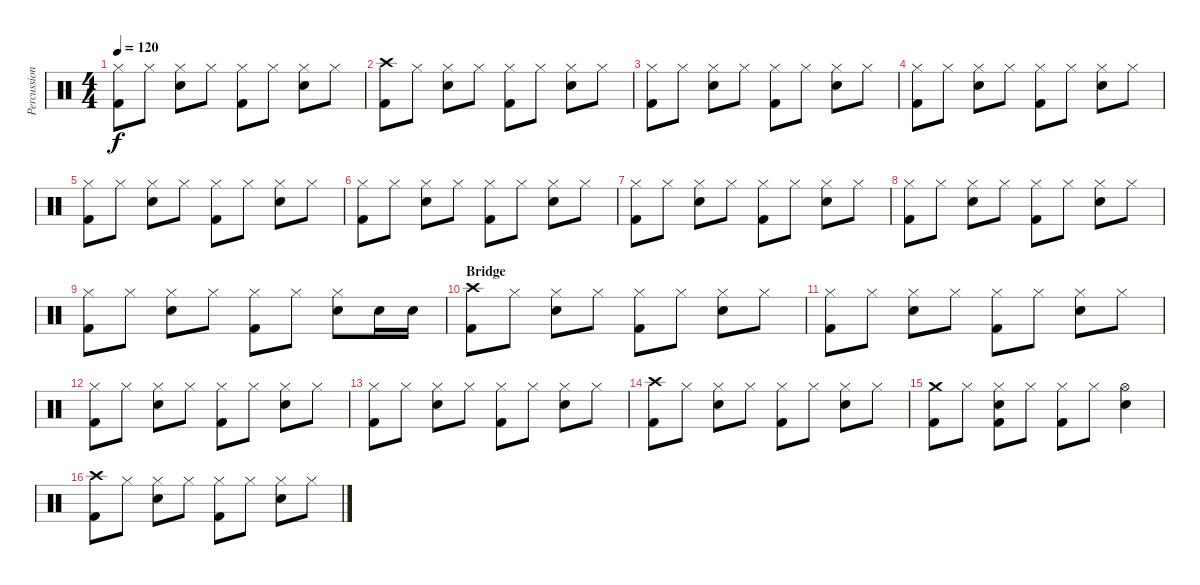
\track ("Percussion" "Percussion") {instrument percussion}
\staff {score}
\articulation defaults
\ts (4 4)
\tempo 120
\clef neutral
\ks c
("Hi-Hat (closed)" "Kick (hit) 2").8{dy f} "Hi-Hat (closed)".8 ("Hi-Hat (closed)" "Electric Snare (hit)").8 "Hi-Hat (closed)".8 ("Hi-Hat (closed)" "Kick (hit) 2").8 "Hi-Hat (closed)".8 ("Hi-Hat (closed)" "Electric Snare (hit)").8 "Hi-Hat (closed)".8 |
("Crash high (hit)" "Kick (hit) 2").8 "Hi-Hat (closed)".8 ("Hi-Hat (closed)" "Electric Snare (hit)").8 "Hi-Hat (closed)".8 ("Hi-Hat (closed)" "Kick (hit) 2").8 "Hi-Hat (closed)".8 ("Hi-Hat (closed)" "Electric Snare (hit)").8 "Hi-Hat (closed)".8 |
("Hi-Hat (closed)" "Kick (hit) 2").8 "Hi-Hat (closed)".8 ("Hi-Hat (closed)" "Electric Snare (hit)").8 "Hi-Hat (closed)".8 ("Hi-Hat (closed)" "Kick (hit) 2").8 "Hi-Hat (closed)".8 ("Hi-Hat (closed)" "Electric Snare (hit)").8 "Hi-Hat (closed)".8 |
("Hi-Hat (closed)" "Kick (hit) 2").8 "Hi-Hat (closed)".8 ("Hi-Hat (closed)" "Electric Snare (hit)").8 "Hi-Hat (closed)".8 ("Hi-Hat (closed)" "Kick (hit) 2").8 "Hi-Hat (closed)".8 ("Hi-Hat (closed)" "Electric Snare (hit)").8 "Hi-Hat (closed)".8 |
("Hi-Hat (closed)" "Kick (hit) 2").8 "Hi-Hat (closed)".8 ("Hi-Hat (closed)" "Electric Snare (hit)").8 "Hi-Hat (closed)".8 ("Hi-Hat (closed)" "Kick (hit) 2").8 "Hi-Hat (closed)".8 ("Hi-Hat (closed)" "Electric Snare (hit)").8 "Hi-Hat (closed)".8 |
("Hi-Hat (closed)" "Kick (hit) 2").8 "Hi-Hat (closed)".8 ("Hi-Hat (closed)" "Electric Snare (hit)").8 "Hi-Hat (closed)".8 ("Hi-Hat (closed)" "Kick (hit) 2").8 "Hi-Hat (closed)".8 ("Hi-Hat (closed)" "Electric Snare (hit)").8 "Hi-Hat (closed)".8 |
("Hi-Hat (closed)" "Kick (hit) 2").8 "Hi-Hat (closed)".8 ("Hi-Hat (closed)" "Electric Snare (hit)").8 "Hi-Hat (closed)".8 ("Hi-Hat (closed)" "Kick (hit) 2").8 "Hi-Hat (closed)".8 ("Hi-Hat (closed)" "Electric Snare (hit)").8 "Hi-Hat (closed)".8 |
("Hi-Hat (closed)" "Kick (hit) 2").8 "Hi-Hat (closed)".8 ("Hi-Hat (closed)" "Electric Snare (hit)").8 "Hi-Hat (closed)".8 ("Hi-Hat (closed)" "Kick (hit) 2").8 "Hi-Hat (closed)".8 ("Hi-Hat (closed)" "Electric Snare (hit)").8 "Hi-Hat (closed)".8 |
("Hi-Hat (closed)" "Kick (hit) 2").8 "Hi-Hat (closed)".8 ("Hi-Hat (closed)" "Electric Snare (hit)").8 "Hi-Hat (closed)".8 ("Hi-Hat (closed)" "Kick (hit) 2").8 "Hi-Hat (closed)".8 ("Hi-Hat (closed)" "Electric Snare (hit)").8 "Electric Snare (hit)".16 "Electric Snare (hit)".16 |
\section ("" "Bridge")
("Crash high (hit)" "Kick (hit) 2").8 "Hi-Hat (closed)".8 ("Hi-Hat (closed)" "Electric Snare (hit)").8 "Hi-Hat (closed)".8 ("Hi-Hat (closed)" "Kick (hit) 2").8 "Hi-Hat (closed)".8 ("Hi-Hat (closed)" "Electric Snare (hit)").8 "Hi-Hat (closed)".8 |
("Hi-Hat (closed)" "Kick (hit) 2").8 "Hi-Hat (closed)".8 ("Hi-Hat (closed)" "Electric Snare (hit)").8 "Hi-Hat (closed)".8 ("Hi-Hat (closed)" "Kick (hit) 2").8 "Hi-Hat (closed)".8 ("Hi-Hat (closed)" "Electric Snare (hit)").8 "Hi-Hat (closed)".8 |
("Hi-Hat (closed)" "Kick (hit) 2").8 "Hi-Hat (closed)".8 ("Hi-Hat (closed)" "Electric Snare (hit)").8 "Hi-Hat (closed)".8 ("Hi-Hat (closed)" "Kick (hit) 2").8 "Hi-Hat (closed)".8 ("Hi-Hat (closed)" "Electric Snare (hit)").8 "Hi-Hat (closed)".8 |
("Hi-Hat (closed)" "Kick (hit) 2").8 "Hi-Hat (closed)".8 ("Hi-Hat (closed)" "Electric Snare (hit)").8 "Hi-Hat (closed)".8 ("Hi-Hat (closed)" "Kick (hit) 2").8 "Hi-Hat (closed)".8 ("Hi-Hat (closed)" "Electric Snare (hit)").8 "Hi-Hat (closed)".8 |
("Crash high (hit)" "Kick (hit) 2").8 "Hi-Hat (closed)".8 ("Hi-Hat (closed)" "Electric Snare (hit)").8 "Hi-Hat (closed)".8 ("Hi-Hat (closed)" "Kick (hit) 2").8 "Hi-Hat (closed)".8 ("Hi-Hat (closed)" "Electric Snare (hit)").8 "Hi-Hat (closed)".8 |
("Crash medium (hit)" "Kick (hit) 2").8 "Hi-Hat (closed)".8 ("Hi-Hat (closed)" "Electric Snare (hit)" "Kick (hit) 2").8 "Hi-Hat (closed)".8 ("Hi-Hat (closed)" "Kick (hit) 2").8 "Hi-Hat (closed)".8 ("Hi-Hat (open)" "Electric Snare (hit)").4 |
("Crash high (hit)" "Kick (hit) 2").8 "Hi-Hat (closed)".8 ("Hi-Hat (closed)" "Electric Snare (hit)").8 "Hi-Hat (closed)".8 ("Hi-Hat (closed)" "Kick (hit) 2").8 "Hi-Hat (closed)".8 ("Hi-Hat (closed)" "Electric Snare (hit)").8 "Hi-Hat (closed)".8
